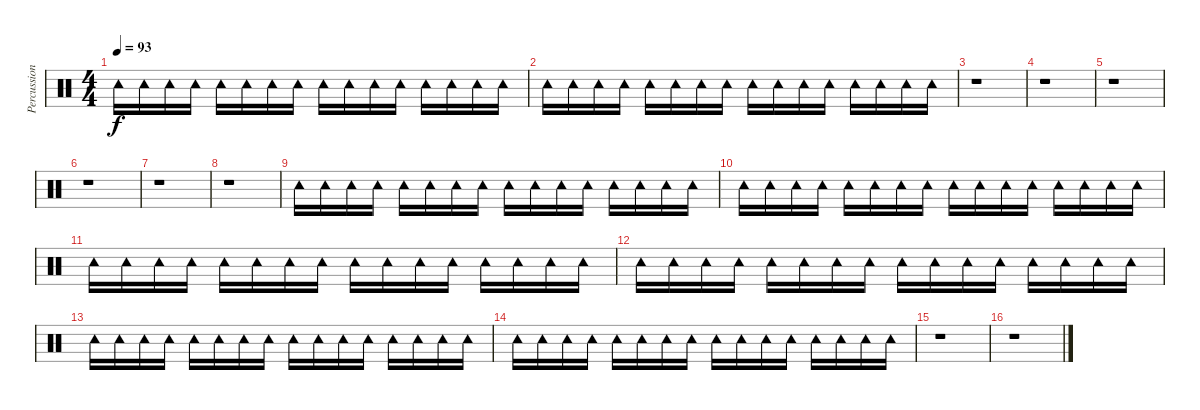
\track ("Percussions" "Percussion") {instrument percussion}
\staff {score}
\articulation defaults
\ts (4 4)
\tempo 93
\clef neutral
\ks c "Tambourine (hit)".16{dy f} "Tambourine (hit)".16 "Tambourine (hit)".16 "Tambourine (hit)".16 "Tambourine (hit)".16 "Tambourine (hit)".16 "Tambourine (hit)".16 "Tambourine (hit)".16 "Tambourine (hit)".16 "Tambourine (hit)".16 "Tambourine (hit)".16 "Tambourine (hit)".16 "Tambourine (hit)".16 "Tambourine (hit)".16 "Tambourine (hit)".16 "Tambourine (hit)".16
|
"Tambourine (hit)".16 "Tambourine (hit)".16 "Tambourine (hit)".16 "Tambourine (hit)".16 "Tambourine (hit)".16 "Tambourine (hit)".16 "Tambourine (hit)".16 "Tambourine (hit)".16 "Tambourine (hit)".16 "Tambourine (hit)".16 "Tambourine (hit)".16 "Tambourine (hit)".16 "Tambourine (hit)".16 "Tambourine (hit)".16 "Tambourine (hit)".16 "Tambourine (hit)".16 |
r.1 |
r.1 |
r.1 |
r.1 |
r.1 |
r.1 |
"Tambourine (hit)".16 "Tambourine (hit)".16 "Tambourine (hit)".16 "Tambourine (hit)".16 "Tambourine (hit)".16 "Tambourine (hit)".16 "Tambourine (hit)".16 "Tambourine (hit)".16 "Tambourine (hit)".16 "Tambourine (hit)".16 "Tambourine (hit)".16 "Tambourine (hit)".16 "Tambourine (hit)".16 "Tambourine (hit)".16 "Tambourine (hit)".16 "Tambourine (hit)".16 |
"Tambourine (hit)".16 "Tambourine (hit)".16 "Tambourine (hit)".16 "Tambourine (hit)".16 "Tambourine (hit)".16 "Tambourine (hit)".16 "Tambourine (hit)".16 "Tambourine (hit)".16 "Tambourine (hit)".16 "Tambourine (hit)".16 "Tambourine (hit)".16 "Tambourine (hit)".16 "Tambourine (hit)".16 "Tambourine (hit)".16 "Tambourine (hit)".16 "Tambourine (hit)".16 |
"Tambourine (hit)".16 "Tambourine (hit)".16 "Tambourine (hit)".16 "Tambourine (hit)".16 "Tambourine (hit)".16 "Tambourine (hit)".16 "Tambourine (hit)".16 "Tambourine (hit)".16 "Tambourine (hit)".16 "Tambourine (hit)".16 "Tambourine (hit)".16 "Tambourine (hit)".16 "Tambourine (hit)".16 "Tambourine (hit)".16 "Tambourine (hit)".16 "Tambourine (hit)".16 |
"Tambourine (hit)".16 "Tambourine (hit)".16 "Tambourine (hit)".16 "Tambourine (hit)".16 "Tambourine (hit)".16 "Tambourine (hit)".16 "Tambourine (hit)".16 "Tambourine (hit)".16 "Tambourine (hit)".16 "Tambourine (hit)".16 "Tambourine (hit)".16 "Tambourine (hit)".16 "Tambourine (hit)".16 "Tambourine (hit)".16 "Tambourine (hit)".16 "Tambourine (hit)".16 |
"Tambourine (hit)".16 "Tambourine (hit)".16 "Tambourine (hit)".16 "Tambourine (hit)".16 "Tambourine (hit)".16 "Tambourine (hit)".16 "Tambourine (hit)".16 "Tambourine (hit)".16 "Tambourine (hit)".16 "Tambourine (hit)".16 "Tambourine (hit)".16 "Tambourine (hit)".16 "Tambourine (hit)".16 "Tambourine (hit)".16 "Tambourine (hit)".16 "Tambourine (hit)".16 |
"Tambourine (hit)".16 "Tambourine (hit)".16 "Tambourine (hit)".16 "Tambourine (hit)".16 "Tambourine (hit)".16 "Tambourine (hit)".16 "Tambourine (hit)".16 "Tambourine (hit)".16 "Tambourine (hit)".16 "Tambourine (hit)".16 "Tambourine (hit)".16 "Tambourine (hit)".16 "Tambourine (hit)".16 "Tambourine (hit)".16 "Tambourine (hit)".16 "Tambourine (hit)".16 |
r.1 |
r.1
